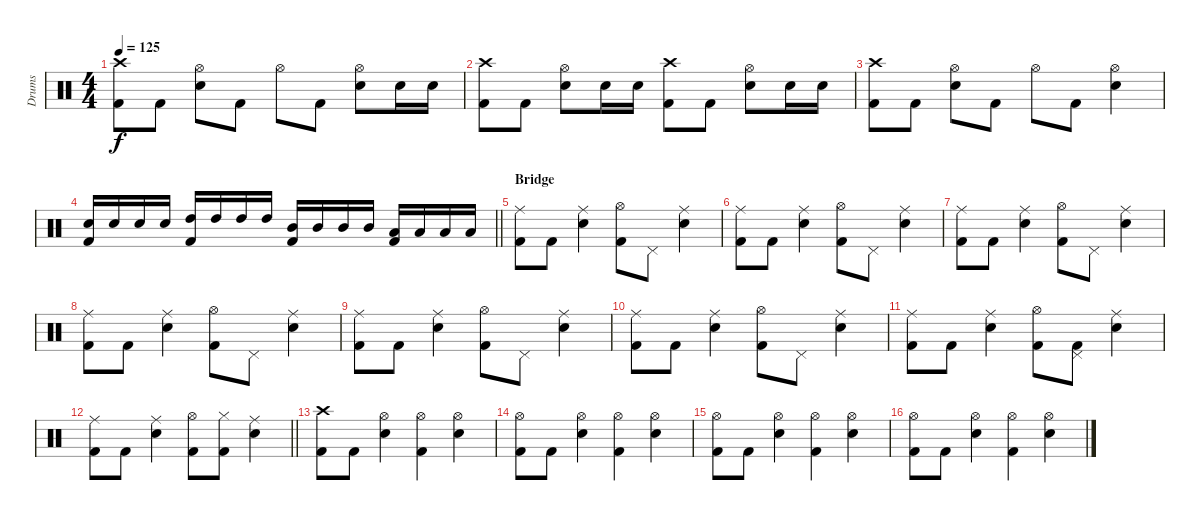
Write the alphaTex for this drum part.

\track ("Drums" "Drums") {instrument percussion}
\staff {score}
\articulation defaults
\ts (4 4)
\tempo 125
\clef neutral
\ks c
("Crash high (hit)" "Kick (hit) 2").8{dy f} "Kick (hit) 2".8 ("Hi-Hat (open)" "Electric Snare (hit)").8 "Kick (hit) 2".8 "Hi-Hat (open)".8 "Kick (hit) 2".8 ("Hi-Hat (open)" "Electric Snare (hit)").8 "Electric Snare (hit)".16 "Electric Snare (hit)".16 |
("Crash high (hit)" "Kick (hit) 2").8 "Kick (hit) 2".8 ("Hi-Hat (open)" "Electric Snare (hit)").8 "Electric Snare (hit)".16 "Electric Snare (hit)".16 ("Crash high (hit)" "Kick (hit) 2").8 "Kick (hit) 2".8 ("Hi-Hat (open)" "Electric Snare (hit)").8 "Electric Snare (hit)".16 "Electric Snare (hit)".16 |
("Crash high (hit)" "Kick (hit) 2").8 "Kick (hit) 2".8 ("Hi-Hat (open)" "Electric Snare (hit)").8 "Kick (hit) 2".8 "Hi-Hat (open)".8 "Kick (hit) 2".8 ("Hi-Hat (open)" "Electric Snare (hit)").4 |
\barLineRight lightlight
("Electric Snare (hit)" "Kick (hit) 2").16 "Electric Snare (hit)".16 "Electric Snare (hit)".16 "Electric Snare (hit)".16 ("High Tom (hit)" "Kick (hit) 2").16 "High Tom (hit)".16 "High Tom (hit)".16 "High Tom (hit)".16 ("Mid Tom (hit)" "Kick (hit) 2").16 "Mid Tom (hit)".16 "Mid Tom (hit)".16 "Mid Tom (hit)".16 ("Low Tom (hit)" "Kick (hit) 2").16 "Low Tom (hit)".16 "Low Tom (hit)".16 "Low Tom (hit)".16 |
\section ("" "Bridge")
("Ride (middle)" "Kick (hit) 2").8 "Kick (hit) 2".8 ("Ride (middle)" "Electric Snare (hit)").4 ("Hi-Hat (open)" "Kick (hit) 2").8 "Pedal Hi-Hat (hit)".8 ("Ride (middle)" "Electric Snare (hit)").4 |
("Ride (middle)" "Kick (hit) 2").8 "Kick (hit) 2".8 ("Ride (middle)" "Electric Snare (hit)").4 ("Hi-Hat (open)" "Kick (hit) 2").8 "Pedal Hi-Hat (hit)".8 ("Ride (middle)" "Electric Snare (hit)").4 |
("Ride (middle)" "Kick (hit) 2").8 "Kick (hit) 2".8 ("Ride (middle)" "Electric Snare (hit)").4 ("Hi-Hat (open)" "Kick (hit) 2").8 "Pedal Hi-Hat (hit)".8 ("Ride (middle)" "Electric Snare (hit)").4 |
("Ride (middle)" "Kick (hit) 2").8 "Kick (hit) 2".8 ("Ride (middle)" "Electric Snare (hit)").4 ("Hi-Hat (open)" "Kick (hit) 2").8 "Pedal Hi-Hat (hit)".8 ("Ride (middle)" "Electric Snare (hit)").4 |
("Ride (middle)" "Kick (hit) 2").8 "Kick (hit) 2".8 ("Ride (middle)" "Electric Snare (hit)").4 ("Hi-Hat (open)" "Kick (hit) 2").8 "Pedal Hi-Hat (hit)".8 ("Ride (middle)" "Electric Snare (hit)").4 |
("Ride (middle)" "Kick (hit) 2").8 "Kick (hit) 2".8 ("Ride (middle)" "Electric Snare (hit)").4 ("Hi-Hat (open)" "Kick (hit) 2").8 "Pedal Hi-Hat (hit)".8 ("Ride (middle)" "Electric Snare (hit)").4 |
("Ride (middle)" "Kick (hit) 2").8 "Kick (hit) 2".8 ("Ride (middle)" "Electric Snare (hit)").4 ("Hi-Hat (open)" "Kick (hit) 2").8 ("Pedal Hi-Hat (hit)" "Kick (hit) 2").8 ("Ride (middle)" "Electric Snare (hit)").4 |
\barLineRight lightlight
("Ride (middle)" "Kick (hit) 2").8 "Kick (hit) 2".8 ("Ride (middle)" "Electric Snare (hit)").4 ("Hi-Hat (open)" "Kick (hit) 2").8 ("Hi-Hat (closed)" "Kick (hit) 2").8 ("Ride (middle)" "Electric Snare (hit)").4 |
("Crash high (hit)" "Kick (hit) 2").8 "Kick (hit) 2".8 ("Hi-Hat (open)" "Electric Snare (hit)").4 ("Hi-Hat (open)" "Kick (hit) 2").4 ("Hi-Hat (open)" "Electric Snare (hit)").4 |
("Hi-Hat (open)" "Kick (hit) 2").8 "Kick (hit) 2".8 ("Hi-Hat (open)" "Electric Snare (hit)").4 ("Hi-Hat (open)" "Kick (hit) 2").4 ("Hi-Hat (open)" "Electric Snare (hit)").4 |
("Hi-Hat (open)" "Kick (hit) 2").8 "Kick (hit) 2".8 ("Hi-Hat (open)" "Electric Snare (hit)").4 ("Hi-Hat (open)" "Kick (hit) 2").4 ("Hi-Hat (open)" "Electric Snare (hit)").4 |
("Hi-Hat (open)" "Kick (hit) 2").8 "Kick (hit) 2".8 ("Hi-Hat (open)" "Electric Snare (hit)").4 ("Hi-Hat (open)" "Kick (hit) 2").4 ("Hi-Hat (open)" "Electric Snare (hit)").4
